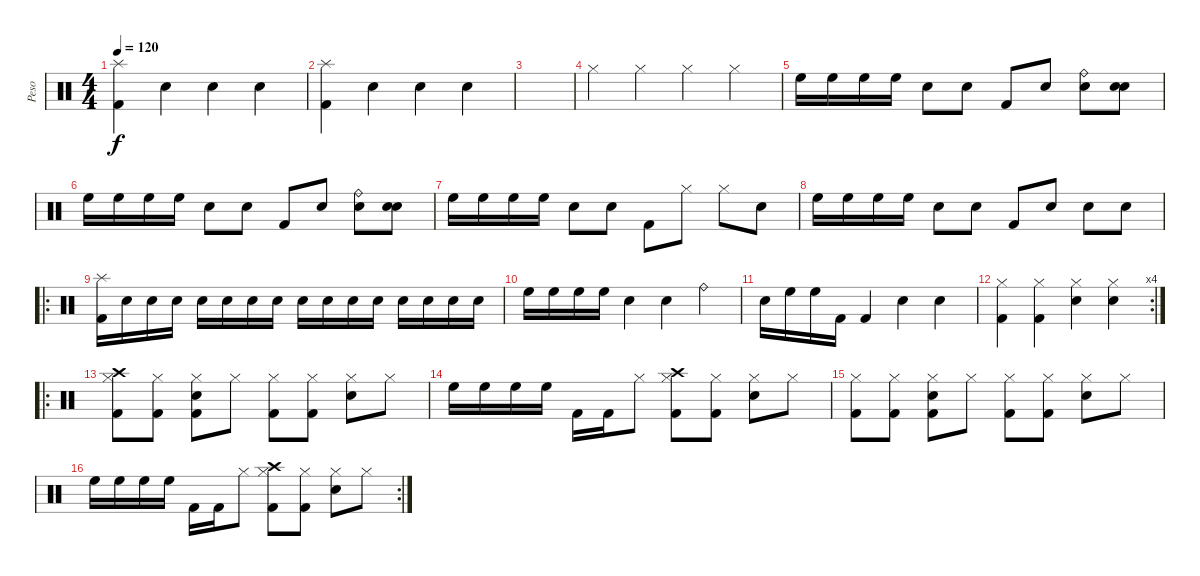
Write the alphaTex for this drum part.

\track ("Peso" "Peso") {instrument percussion}
\staff {score}
\articulation defaults
\ts (4 4)
\tempo 120
\clef neutral
\ks c
("Splash (hit)" "Kick (hit) 2").4{dy f} "Snare (hit)"{x}.4 "Snare (hit)"{x}.4 "Snare (hit)"{x}.4 |
("Splash (hit)" "Kick (hit) 2").4 "Snare (hit)"{x}.4 "Snare (hit)"{x}.4 "Snare (hit)"{x}.4 |
|
"Hi-Hat (closed)".4 "Hi-Hat (closed)".4 "Hi-Hat (closed)".4 "Hi-Hat (closed)".4 |
"High Floor Tom (hit)".16 "High Floor Tom (hit)".16 "High Floor Tom (hit)".16 "High Floor Tom (hit)".16 "Snare (hit) 2".8 "Snare (hit) 2".8 "Kick (hit) 2".8 "Snare (hit)"{x}.8 ("Ride (bell)" "Snare (hit)"{x}).8 ("Snare (hit) 2" "Snare (hit)"{x}).8 |
"High Floor Tom (hit)".16 "High Floor Tom (hit)".16 "High Floor Tom (hit)".16 "High Floor Tom (hit)".16 "Snare (hit) 2".8 "Snare (hit) 2".8 "Kick (hit) 2".8 "Snare (hit)"{x}.8 ("Ride (bell)" "Snare (hit)"{x}).8 ("Snare (hit) 2" "Snare (hit)"{x}).8 |
"High Floor Tom (hit)".16 "High Floor Tom (hit)".16 "High Floor Tom (hit)".16 "High Floor Tom (hit)".16 "Snare (hit) 2".8 "Snare (hit) 2".8 "Kick (hit) 2".8 "Hi-Hat (closed)".8 "Hi-Hat (closed)".8 "Snare (hit) 2".8 |
"High Floor Tom (hit)".16 "High Floor Tom (hit)".16 "High Floor Tom (hit)".16 "High Floor Tom (hit)".16 "Snare (hit) 2".8 "Snare (hit) 2".8 "Kick (hit) 2".8 "Snare (hit)"{x}.8 "Snare (hit)"{x}.8 "Snare (hit)"{x}.8 |
\ro
("Splash (hit)" "Kick (hit) 2").16 "Snare (hit)"{x}.16 "Snare (hit)"{x}.16 "Snare (hit)"{x}.16 "Snare (hit)"{x}.16 "Snare (hit)"{x}.16 "Snare (hit)"{x}.16 "Snare (hit)"{x}.16 "Snare (hit)"{x}.16 "Snare (hit)"{x}.16 "Snare (hit)"{x}.16 "Snare (hit)"{x}.16 "Snare (hit)"{x}.16 "Snare (hit)"{x}.16 "Snare (hit)"{x}.16 "Snare (hit)"{x}.16 |
"High Floor Tom (hit)".16 "High Floor Tom (hit)".16 "High Floor Tom (hit)".16 "High Floor Tom (hit)".16 "Snare (hit) 2".4 "Snare (hit) 2".4 "Ride (bell)".4 |
"Snare (hit) 2".16 "High Floor Tom (hit)".16 "High Floor Tom (hit)".16 "Kick (hit) 2".16 "Kick (hit) 2".4 "Snare (hit) 2".4 "Snare (hit)"{x}.4 |
\rc 4
("Hi-Hat (closed)" "Kick (hit) 2").4 ("Hi-Hat (closed)" "Kick (hit) 2").4 ("Hi-Hat (closed)" "Snare (hit) 2").4 ("Hi-Hat (closed)" "Snare (hit) 2").4 |
\ro
("Crash high (hit)" "Hi-Hat (closed)" "Kick (hit) 2").8 ("Hi-Hat (closed)" "Kick (hit) 2").8 ("Hi-Hat (closed)" "Snare (hit) 2" "Kick (hit) 2").8 "Hi-Hat (closed)".8 ("Hi-Hat (closed)" "Kick (hit) 2").8 ("Hi-Hat (closed)" "Kick (hit) 2").8 ("Hi-Hat (closed)" "Snare (hit) 2").8 "Hi-Hat (closed)".8 |
"High Floor Tom (hit)".16 "High Floor Tom (hit)".16 "High Floor Tom (hit)".16 "High Floor Tom (hit)".16 "Kick (hit) 2".16 "Kick (hit) 2".16 "Hi-Hat (closed)".8 ("Crash high (hit)" "Hi-Hat (closed)" "Kick (hit) 2").8 ("Hi-Hat (closed)" "Kick (hit) 2").8 ("Hi-Hat (closed)" "Snare (hit) 2").8 "Hi-Hat (closed)".8 |
("Hi-Hat (closed)" "Kick (hit) 2").8 ("Hi-Hat (closed)" "Kick (hit) 2").8 ("Hi-Hat (closed)" "Snare (hit) 2" "Kick (hit) 2").8 "Hi-Hat (closed)".8 ("Hi-Hat (closed)" "Kick (hit) 2").8 ("Hi-Hat (closed)" "Kick (hit) 2").8 ("Hi-Hat (closed)" "Snare (hit) 2").8 "Hi-Hat (closed)".8 |
\rc 2 "High Floor Tom (hit)".16 "High Floor Tom (hit)".16 "High Floor Tom (hit)".16 "High Floor Tom (hit)".16 "Kick (hit) 2".16 "Kick (hit) 2".16 "Hi-Hat (closed)".8
("Crash high (hit)" "Hi-Hat (closed)" "Kick (hit) 2").8 ("Hi-Hat (closed)" "Kick (hit) 2").8 ("Hi-Hat (closed)" "Snare (hit) 2").8 "Hi-Hat (closed)".8
